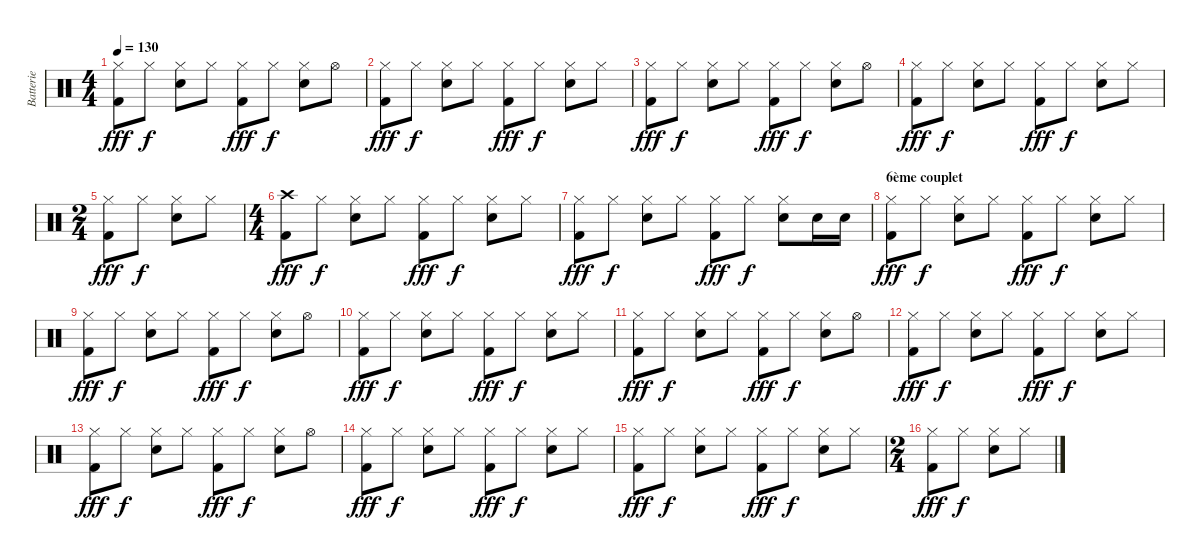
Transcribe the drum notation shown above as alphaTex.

\track ("Batterie" "Batterie") {instrument percussion}
\staff {score}
\articulation defaults
\ts (4 4)
\tempo 130
\clef neutral
\ks c
("Hi-Hat (closed)" "Kick (hit) 2").8{dy fff} "Hi-Hat (closed)".8{dy f} ("Hi-Hat (closed)" "Snare (hit) 2").8 "Hi-Hat (closed)".8 ("Hi-Hat (closed)" "Kick (hit) 2").8{dy fff} "Hi-Hat (closed)".8{dy f} ("Hi-Hat (closed)" "Snare (hit) 2").8 "Hi-Hat (open)".8 |
("Hi-Hat (closed)" "Kick (hit) 2").8{dy fff} "Hi-Hat (closed)".8{dy f} ("Hi-Hat (closed)" "Snare (hit) 2").8 "Hi-Hat (closed)".8 ("Hi-Hat (closed)" "Kick (hit) 2").8{dy fff} "Hi-Hat (closed)".8{dy f} ("Hi-Hat (closed)" "Snare (hit) 2").8 "Hi-Hat (closed)".8 |
("Hi-Hat (closed)" "Kick (hit) 2").8{dy fff} "Hi-Hat (closed)".8{dy f} ("Hi-Hat (closed)" "Snare (hit) 2").8 "Hi-Hat (closed)".8 ("Hi-Hat (closed)" "Kick (hit) 2").8{dy fff} "Hi-Hat (closed)".8{dy f} ("Hi-Hat (closed)" "Snare (hit) 2").8 "Hi-Hat (open)".8 |
("Hi-Hat (closed)" "Kick (hit) 2").8{dy fff} "Hi-Hat (closed)".8{dy f} ("Hi-Hat (closed)" "Snare (hit) 2").8 "Hi-Hat (closed)".8 ("Hi-Hat (closed)" "Kick (hit) 2").8{dy fff} "Hi-Hat (closed)".8{dy f} ("Hi-Hat (closed)" "Snare (hit) 2").8 "Hi-Hat (closed)".8 |
\ts (2 4)
("Hi-Hat (closed)" "Kick (hit) 2").8{dy fff} "Hi-Hat (closed)".8{dy f} ("Hi-Hat (closed)" "Snare (hit) 2").8 "Hi-Hat (closed)".8 |
\ts (4 4)
("Crash high (hit)" "Kick (hit) 2").8{dy fff} "Hi-Hat (closed)".8{dy f} ("Hi-Hat (closed)" "Snare (hit) 2").8 "Hi-Hat (closed)".8 ("Hi-Hat (closed)" "Kick (hit) 2").8{dy fff} "Hi-Hat (closed)".8{dy f} ("Hi-Hat (closed)" "Snare (hit) 2").8 "Hi-Hat (closed)".8 |
("Hi-Hat (closed)" "Kick (hit) 2").8{dy fff} "Hi-Hat (closed)".8{dy f} ("Hi-Hat (closed)" "Snare (hit) 2").8 "Hi-Hat (closed)".8 ("Hi-Hat (closed)" "Kick (hit) 2").8{dy fff} "Hi-Hat (closed)".8{dy f} ("Hi-Hat (closed)" "Snare (hit) 2").8 "Snare (hit) 2".16 "Snare (hit) 2".16 |
\section ("" "6ème couplet")
("Hi-Hat (closed)" "Kick (hit) 2").8{dy fff} "Hi-Hat (closed)".8{dy f} ("Hi-Hat (closed)" "Snare (hit) 2").8 "Hi-Hat (closed)".8 ("Hi-Hat (closed)" "Kick (hit) 2").8{dy fff} "Hi-Hat (closed)".8{dy f} ("Hi-Hat (closed)" "Snare (hit) 2").8 "Hi-Hat (closed)".8 |
("Hi-Hat (closed)" "Kick (hit) 2").8{dy fff} "Hi-Hat (closed)".8{dy f} ("Hi-Hat (closed)" "Snare (hit) 2").8 "Hi-Hat (closed)".8 ("Hi-Hat (closed)" "Kick (hit) 2").8{dy fff} "Hi-Hat (closed)".8{dy f} ("Hi-Hat (closed)" "Snare (hit) 2").8 "Hi-Hat (open)".8 |
("Hi-Hat (closed)" "Kick (hit) 2").8{dy fff} "Hi-Hat (closed)".8{dy f} ("Hi-Hat (closed)" "Snare (hit) 2").8 "Hi-Hat (closed)".8 ("Hi-Hat (closed)" "Kick (hit) 2").8{dy fff} "Hi-Hat (closed)".8{dy f} ("Hi-Hat (closed)" "Snare (hit) 2").8 "Hi-Hat (closed)".8 |
("Hi-Hat (closed)" "Kick (hit) 2").8{dy fff} "Hi-Hat (closed)".8{dy f} ("Hi-Hat (closed)" "Snare (hit) 2").8 "Hi-Hat (closed)".8 ("Hi-Hat (closed)" "Kick (hit) 2").8{dy fff} "Hi-Hat (closed)".8{dy f} ("Hi-Hat (closed)" "Snare (hit) 2").8 "Hi-Hat (open)".8 |
("Hi-Hat (closed)" "Kick (hit) 2").8{dy fff} "Hi-Hat (closed)".8{dy f} ("Hi-Hat (closed)" "Snare (hit) 2").8 "Hi-Hat (closed)".8 ("Hi-Hat (closed)" "Kick (hit) 2").8{dy fff} "Hi-Hat (closed)".8{dy f} ("Hi-Hat (closed)" "Snare (hit) 2").8 "Hi-Hat (closed)".8 |
("Hi-Hat (closed)" "Kick (hit) 2").8{dy fff} "Hi-Hat (closed)".8{dy f} ("Hi-Hat (closed)" "Snare (hit) 2").8 "Hi-Hat (closed)".8 ("Hi-Hat (closed)" "Kick (hit) 2").8{dy fff} "Hi-Hat (closed)".8{dy f} ("Hi-Hat (closed)" "Snare (hit) 2").8 "Hi-Hat (open)".8 |
("Hi-Hat (closed)" "Kick (hit) 2").8{dy fff} "Hi-Hat (closed)".8{dy f} ("Hi-Hat (closed)" "Snare (hit) 2").8 "Hi-Hat (closed)".8 ("Hi-Hat (closed)" "Kick (hit) 2").8{dy fff} "Hi-Hat (closed)".8{dy f} ("Hi-Hat (closed)" "Snare (hit) 2").8 "Hi-Hat (closed)".8 |
("Hi-Hat (closed)" "Kick (hit) 2").8{dy fff} "Hi-Hat (closed)".8{dy f} ("Hi-Hat (closed)" "Snare (hit) 2").8 "Hi-Hat (closed)".8 ("Hi-Hat (closed)" "Kick (hit) 2").8{dy fff} "Hi-Hat (closed)".8{dy f} ("Hi-Hat (closed)" "Snare (hit) 2").8 "Hi-Hat (closed)".8 |
\ts (2 4)
("Hi-Hat (closed)" "Kick (hit) 2").8{dy fff} "Hi-Hat (closed)".8{dy f} ("Hi-Hat (closed)" "Snare (hit) 2").8 "Hi-Hat (closed)".8
